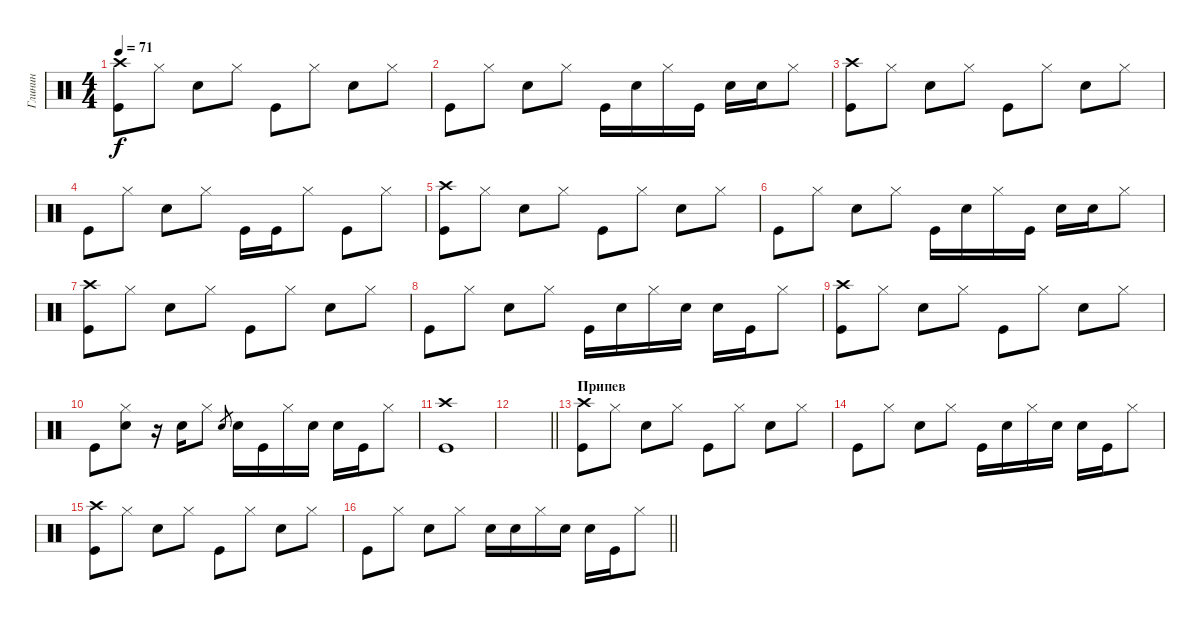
\track ("Глинин" "Глинин") {instrument percussion}
\staff {score}
\articulation defaults
\ts (4 4)
\tempo 71
\clef neutral
\ks c
("Kick (hit)" "Crash high (hit)").8{dy f} "Hi-Hat (closed)".8 "Snare (hit) 2".8 "Hi-Hat (closed)".8 "Kick (hit)".8 "Hi-Hat (closed)".8 "Snare (hit) 2".8 "Hi-Hat (closed)".8 |
"Kick (hit)".8 "Hi-Hat (closed)".8 "Snare (hit) 2".8 "Hi-Hat (closed)".8 "Kick (hit)".16 "Snare (hit) 2".16 "Hi-Hat (closed)".16 "Kick (hit)".16 "Snare (hit) 2".16 "Snare (hit) 2".16 "Hi-Hat (closed)".8 |
("Kick (hit)" "Crash high (hit)").8 "Hi-Hat (closed)".8 "Snare (hit) 2".8 "Hi-Hat (closed)".8 "Kick (hit)".8 "Hi-Hat (closed)".8 "Snare (hit) 2".8 "Hi-Hat (closed)".8 |
"Kick (hit)".8 "Hi-Hat (closed)".8 "Snare (hit) 2".8 "Hi-Hat (closed)".8 "Kick (hit)".16 "Kick (hit)".16 "Hi-Hat (closed)".8 "Kick (hit)".8 "Hi-Hat (closed)".8 |
("Kick (hit)" "Crash high (hit)").8 "Hi-Hat (closed)".8 "Snare (hit) 2".8 "Hi-Hat (closed)".8 "Kick (hit)".8 "Hi-Hat (closed)".8 "Snare (hit) 2".8 "Hi-Hat (closed)".8 |
"Kick (hit)".8 "Hi-Hat (closed)".8 "Snare (hit) 2".8 "Hi-Hat (closed)".8 "Kick (hit)".16 "Snare (hit) 2".16 "Hi-Hat (closed)".16 "Kick (hit)".16 "Snare (hit) 2".16 "Snare (hit) 2".16 "Hi-Hat (closed)".8 |
("Kick (hit)" "Crash high (hit)").8 "Hi-Hat (closed)".8 "Snare (hit) 2".8 "Hi-Hat (closed)".8 "Kick (hit)".8 "Hi-Hat (closed)".8 "Snare (hit) 2".8 "Hi-Hat (closed)".8 |
"Kick (hit)".8 "Hi-Hat (closed)".8 "Snare (hit) 2".8 "Hi-Hat (closed)".8 "Kick (hit)".16 "Snare (hit) 2".16 "Hi-Hat (closed)".16 "Snare (hit) 2".16 "Snare (hit) 2".16 "Kick (hit)".16 "Hi-Hat (closed)".8 |
("Kick (hit)" "Crash high (hit)").8 "Hi-Hat (closed)".8 "Snare (hit) 2".8 "Hi-Hat (closed)".8 "Kick (hit)".8 "Hi-Hat (closed)".8 "Snare (hit) 2".8 "Hi-Hat (closed)".8 |
"Kick (hit)".8 ("Hi-Hat (closed)" "Snare (hit) 2").8 r.16 "Snare (hit) 2".16 "Hi-Hat (closed)".8 "Snare (hit) 2".8{gr} "Snare (hit) 2".16 "Kick (hit)".16 "Hi-Hat (closed)".16 "Snare (hit) 2".16 "Snare (hit) 2".16 "Kick (hit)".16 "Hi-Hat (closed)".8 |
("Crash high (hit)" "Kick (hit)").1 |
\barLineRight lightlight
|
\section ("" "Припев")
("Kick (hit)" "Crash high (hit)").8 "Hi-Hat (closed)".8 "Snare (hit) 2".8 "Hi-Hat (closed)".8 "Kick (hit)".8 "Hi-Hat (closed)".8 "Snare (hit) 2".8 "Hi-Hat (closed)".8 |
"Kick (hit)".8 "Hi-Hat (closed)".8 "Snare (hit) 2".8 "Hi-Hat (closed)".8 "Kick (hit)".16 "Snare (hit) 2".16 "Hi-Hat (closed)".16 "Snare (hit) 2".16 "Snare (hit) 2".16 "Kick (hit)".16 "Hi-Hat (closed)".8 |
("Kick (hit)" "Crash high (hit)").8 "Hi-Hat (closed)".8 "Snare (hit) 2".8 "Hi-Hat (closed)".8 "Kick (hit)".8 "Hi-Hat (closed)".8 "Snare (hit) 2".8 "Hi-Hat (closed)".8 |
\barLineRight lightlight "Kick (hit)".8 "Hi-Hat (closed)".8 "Snare (hit) 2".8 "Hi-Hat (closed)".8 "Snare (hit) 2".16 "Snare (hit) 2".16 "Hi-Hat (closed)".16 "Snare (hit) 2".16 "Snare (hit) 2".16 "Kick (hit)".16 "Hi-Hat (closed)".8
